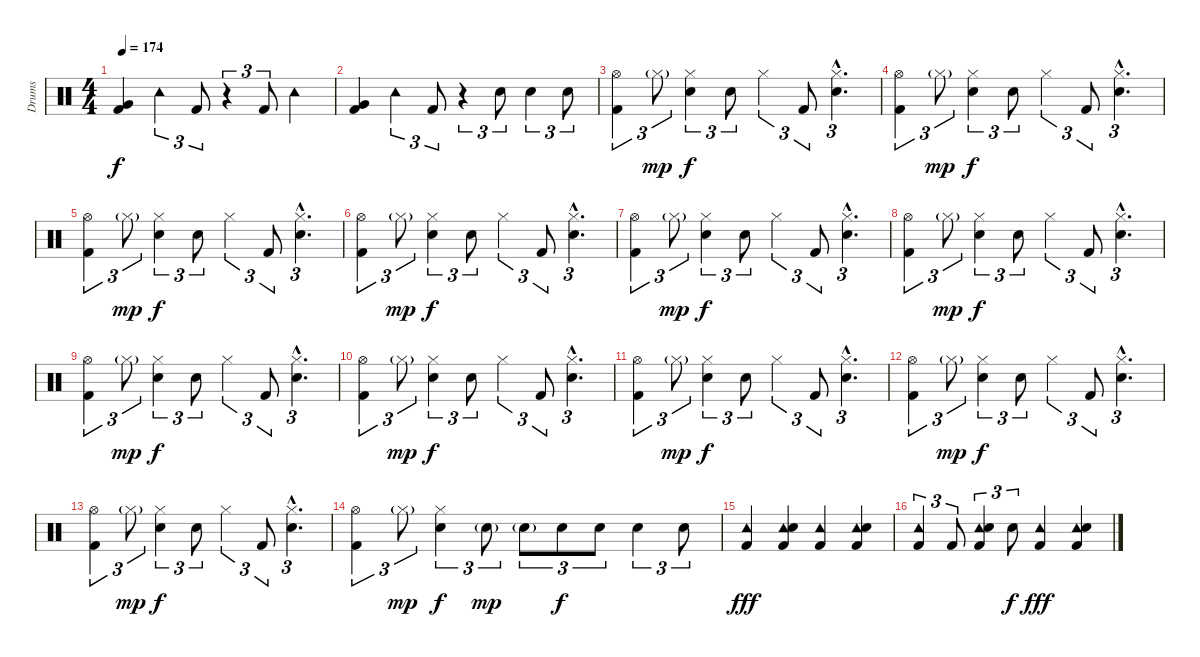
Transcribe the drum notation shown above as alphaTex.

\track ("Drums" "Drums") {instrument percussion}
\staff {score}
\articulation defaults
\ts (4 4)
\tempo 174
\clef neutral
\ks c
("Very Low Tom (hit)" "Kick (hit) 2").4{dy f} "Tambourine (hit)".4{tu (3 2)} "Kick (hit) 2".8{tu (3 2)} r.4{tu (3 2)} "Kick (hit) 2".8{tu (3 2)} "Tambourine (hit)".4 |
("Very Low Tom (hit)" "Kick (hit) 2").4 "Tambourine (hit)".4{tu (3 2)} "Kick (hit) 2".8{tu (3 2)} r.4{tu (3 2)} "Electric Snare (hit)".8{tu (3 2)} "Electric Snare (hit)".4{tu (3 2)} "Electric Snare (hit)".8{tu (3 2)} |
("Hi-Hat (open)" "Kick (hit) 2").4{tu (3 2)} "Hi-Hat (closed)"{g}.8{tu (3 2) dy mp} ("Hi-Hat (closed)" "Electric Snare (hit)").4{tu (3 2) dy f} "Electric Snare (hit)".8{tu (3 2)} "Hi-Hat (closed)".4{tu (3 2)} "Kick (hit) 2".8{tu (3 2)} ("Hi-Hat (closed)"{hac} "Electric Snare (hit)"{hac}).4{d tu (3 2)} |
("Hi-Hat (open)" "Kick (hit) 2").4{tu (3 2)} "Hi-Hat (closed)"{g}.8{tu (3 2) dy mp} ("Hi-Hat (closed)" "Electric Snare (hit)").4{tu (3 2) dy f} "Electric Snare (hit)".8{tu (3 2)} "Hi-Hat (closed)".4{tu (3 2)} "Kick (hit) 2".8{tu (3 2)} ("Hi-Hat (closed)"{hac} "Electric Snare (hit)"{hac}).4{d tu (3 2)} |
("Hi-Hat (open)" "Kick (hit) 2").4{tu (3 2)} "Hi-Hat (closed)"{g}.8{tu (3 2) dy mp} ("Hi-Hat (closed)" "Electric Snare (hit)").4{tu (3 2) dy f} "Electric Snare (hit)".8{tu (3 2)} "Hi-Hat (closed)".4{tu (3 2)} "Kick (hit) 2".8{tu (3 2)} ("Hi-Hat (closed)"{hac} "Electric Snare (hit)"{hac}).4{d tu (3 2)} |
("Hi-Hat (open)" "Kick (hit) 2").4{tu (3 2)} "Hi-Hat (closed)"{g}.8{tu (3 2) dy mp} ("Hi-Hat (closed)" "Electric Snare (hit)").4{tu (3 2) dy f} "Electric Snare (hit)".8{tu (3 2)} "Hi-Hat (closed)".4{tu (3 2)} "Kick (hit) 2".8{tu (3 2)} ("Hi-Hat (closed)"{hac} "Electric Snare (hit)"{hac}).4{d tu (3 2)} |
("Hi-Hat (open)" "Kick (hit) 2").4{tu (3 2)} "Hi-Hat (closed)"{g}.8{tu (3 2) dy mp} ("Hi-Hat (closed)" "Electric Snare (hit)").4{tu (3 2) dy f} "Electric Snare (hit)".8{tu (3 2)} "Hi-Hat (closed)".4{tu (3 2)} "Kick (hit) 2".8{tu (3 2)} ("Hi-Hat (closed)"{hac} "Electric Snare (hit)"{hac}).4{d tu (3 2)} |
("Hi-Hat (open)" "Kick (hit) 2").4{tu (3 2)} "Hi-Hat (closed)"{g}.8{tu (3 2) dy mp} ("Hi-Hat (closed)" "Electric Snare (hit)").4{tu (3 2) dy f} "Electric Snare (hit)".8{tu (3 2)} "Hi-Hat (closed)".4{tu (3 2)} "Kick (hit) 2".8{tu (3 2)} ("Hi-Hat (closed)"{hac} "Electric Snare (hit)"{hac}).4{d tu (3 2)} |
("Hi-Hat (open)" "Kick (hit) 2").4{tu (3 2)} "Hi-Hat (closed)"{g}.8{tu (3 2) dy mp} ("Hi-Hat (closed)" "Electric Snare (hit)").4{tu (3 2) dy f} "Electric Snare (hit)".8{tu (3 2)} "Hi-Hat (closed)".4{tu (3 2)} "Kick (hit) 2".8{tu (3 2)} ("Hi-Hat (closed)"{hac} "Electric Snare (hit)"{hac}).4{d tu (3 2)} |
("Hi-Hat (open)" "Kick (hit) 2").4{tu (3 2)} "Hi-Hat (closed)"{g}.8{tu (3 2) dy mp} ("Hi-Hat (closed)" "Electric Snare (hit)").4{tu (3 2) dy f} "Electric Snare (hit)".8{tu (3 2)} "Hi-Hat (closed)".4{tu (3 2)} "Kick (hit) 2".8{tu (3 2)} ("Hi-Hat (closed)"{hac} "Electric Snare (hit)"{hac}).4{d tu (3 2)} |
("Hi-Hat (open)" "Kick (hit) 2").4{tu (3 2)} "Hi-Hat (closed)"{g}.8{tu (3 2) dy mp} ("Hi-Hat (closed)" "Electric Snare (hit)").4{tu (3 2) dy f} "Electric Snare (hit)".8{tu (3 2)} "Hi-Hat (closed)".4{tu (3 2)} "Kick (hit) 2".8{tu (3 2)} ("Hi-Hat (closed)"{hac} "Electric Snare (hit)"{hac}).4{d tu (3 2)} |
("Hi-Hat (open)" "Kick (hit) 2").4{tu (3 2)} "Hi-Hat (closed)"{g}.8{tu (3 2) dy mp} ("Hi-Hat (closed)" "Electric Snare (hit)").4{tu (3 2) dy f} "Electric Snare (hit)".8{tu (3 2)} "Hi-Hat (closed)".4{tu (3 2)} "Kick (hit) 2".8{tu (3 2)} ("Hi-Hat (closed)"{hac} "Electric Snare (hit)"{hac}).4{d tu (3 2)} |
("Hi-Hat (open)" "Kick (hit) 2").4{tu (3 2)} "Hi-Hat (closed)"{g}.8{tu (3 2) dy mp} ("Hi-Hat (closed)" "Electric Snare (hit)").4{tu (3 2) dy f} "Electric Snare (hit)".8{tu (3 2)} "Hi-Hat (closed)".4{tu (3 2)} "Kick (hit) 2".8{tu (3 2)} ("Hi-Hat (closed)"{hac} "Electric Snare (hit)"{hac}).4{d tu (3 2)} |
("Hi-Hat (open)" "Kick (hit) 2").4{tu (3 2)} "Hi-Hat (closed)"{g}.8{tu (3 2) dy mp} ("Hi-Hat (closed)" "Electric Snare (hit)").4{tu (3 2) dy f} "Electric Snare (hit)"{g}.8{tu (3 2) dy mp} "Electric Snare (hit)"{g}.8{tu (3 2)} "Electric Snare (hit)".8{tu (3 2) dy f} "Electric Snare (hit)".8{tu (3 2)} "Electric Snare (hit)".4{tu (3 2)} "Electric Snare (hit)".8{tu (3 2)} |
("Tambourine (hit)" "Kick (hit) 2").4{dy fff} ("Tambourine (hit)" "Electric Snare (hit)" "Kick (hit) 2").4 ("Tambourine (hit)" "Kick (hit) 2").4 ("Tambourine (hit)" "Electric Snare (hit)" "Kick (hit) 2").4 |
("Tambourine (hit)" "Kick (hit) 2").4{tu (3 2)} "Kick (hit) 2".8{tu (3 2)} ("Tambourine (hit)" "Electric Snare (hit)" "Kick (hit) 2").4{tu (3 2)} "Electric Snare (hit)".8{tu (3 2) dy f} ("Tambourine (hit)" "Kick (hit) 2").4{dy fff} ("Tambourine (hit)" "Electric Snare (hit)" "Kick (hit) 2").4
